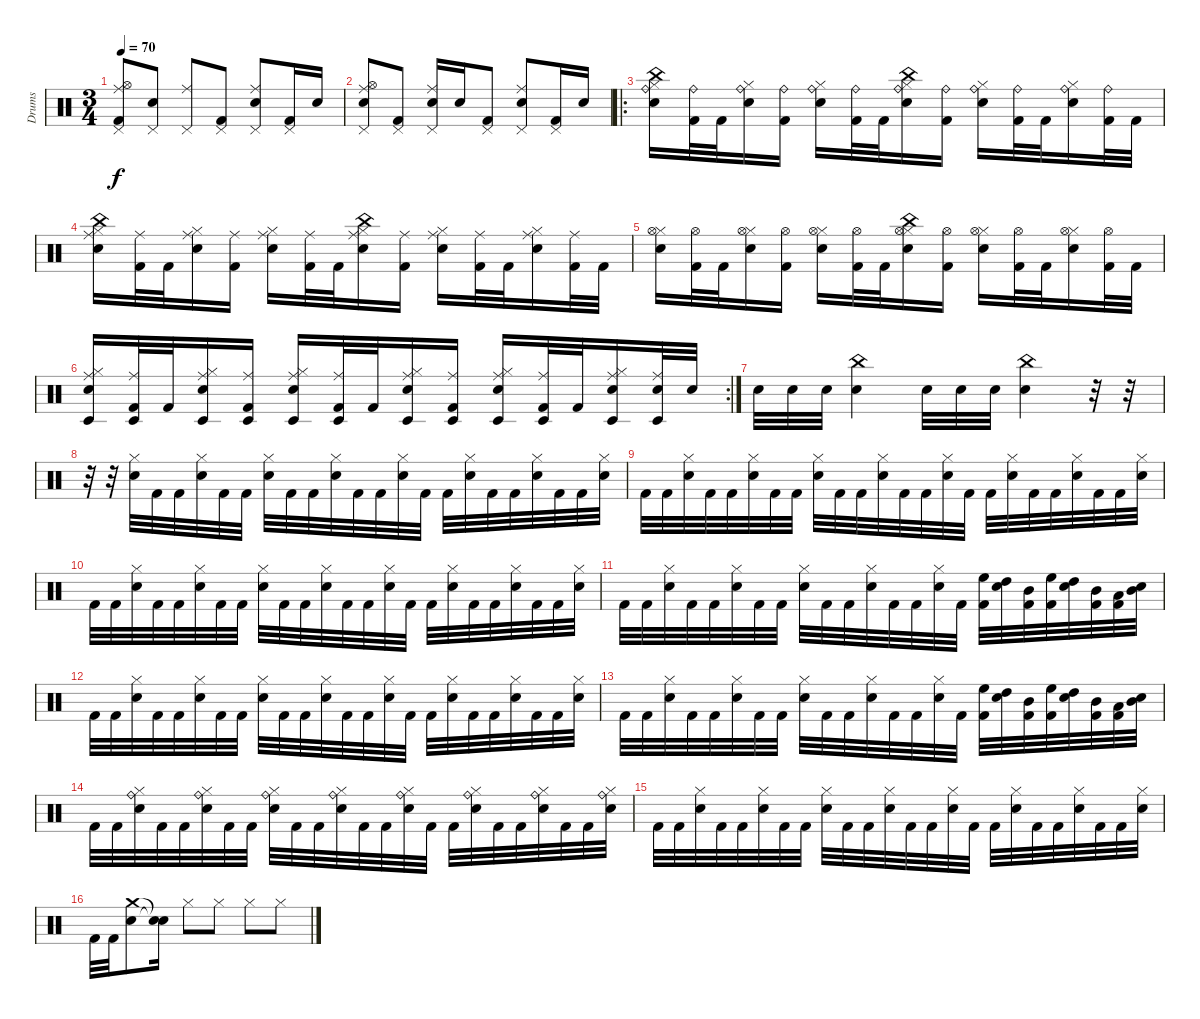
\track ("Drums" "Drums") {instrument percussion}
\staff {score}
\articulation defaults
\ts (3 4)
\tempo 70
\clef neutral
\ks c
("Pedal Hi-Hat (hit)" "Kick (hit) 2" "Hi-Hat (open)" "Ride (middle)").8{dy f} ("Pedal Hi-Hat (hit)" "Electric Snare (hit)").8 ("Pedal Hi-Hat (hit)" "Ride (middle)").8 ("Pedal Hi-Hat (hit)" "Kick (hit) 2").8 ("Pedal Hi-Hat (hit)" "Electric Snare (hit)" "Ride (middle)").8 ("Pedal Hi-Hat (hit)" "Kick (hit) 2").16 "Electric Snare (hit)".16 |
("Pedal Hi-Hat (hit)" "Electric Snare (hit)" "Hi-Hat (open)" "Ride (middle)").8 ("Pedal Hi-Hat (hit)" "Kick (hit) 2").8 ("Pedal Hi-Hat (hit)" "Electric Snare (hit)" "Ride (middle)").16 "Electric Snare (hit)".16 ("Pedal Hi-Hat (hit)" "Kick (hit) 2").8 ("Pedal Hi-Hat (hit)" "Electric Snare (hit)" "Ride (middle)").8 ("Pedal Hi-Hat (hit)" "Kick (hit) 2").16 "Electric Snare (hit)".16 |
\ro
("Hi-Hat (closed)" "Electric Snare (hit)" "Ride (bell)" "China (hit)").16 ("Kick (hit) 2" "Ride (bell)").32 "Kick (hit) 2".32 ("Hi-Hat (closed)" "Electric Snare (hit)" "Ride (bell)").16 ("Kick (hit) 2" "Ride (bell)").16 ("Hi-Hat (closed)" "Electric Snare (hit)" "Ride (bell)").16 ("Kick (hit) 2" "Ride (bell)").32 "Kick (hit) 2".32 ("Hi-Hat (closed)" "Electric Snare (hit)" "Ride (bell)" "China (hit)").16 ("Kick (hit) 2" "Ride (bell)").16 ("Hi-Hat (closed)" "Electric Snare (hit)" "Ride (bell)").16 ("Kick (hit) 2" "Ride (bell)").32 "Kick (hit) 2".32 ("Hi-Hat (closed)" "Electric Snare (hit)" "Ride (bell)").16 ("Kick (hit) 2" "Ride (bell)").32 "Kick (hit) 2".32 |
("Hi-Hat (closed)" "Electric Snare (hit)" "Ride (middle)" "China (hit)").16 ("Kick (hit) 2" "Ride (middle)").32 "Kick (hit) 2".32 ("Hi-Hat (closed)" "Electric Snare (hit)" "Ride (middle)").16 ("Kick (hit) 2" "Ride (middle)").16 ("Hi-Hat (closed)" "Electric Snare (hit)" "Ride (middle)").16 ("Kick (hit) 2" "Ride (middle)").32 "Kick (hit) 2".32 ("Hi-Hat (closed)" "Electric Snare (hit)" "Ride (middle)" "China (hit)").16 ("Kick (hit) 2" "Ride (middle)").16 ("Hi-Hat (closed)" "Electric Snare (hit)" "Ride (middle)").16 ("Kick (hit) 2" "Ride (middle)").32 "Kick (hit) 2".32 ("Hi-Hat (closed)" "Electric Snare (hit)" "Ride (middle)").16 ("Kick (hit) 2" "Ride (middle)").32 "Kick (hit) 2".32 |
("Hi-Hat (closed)" "Electric Snare (hit)" "Hi-Hat (open)").16 ("Kick (hit) 2" "Hi-Hat (open)").32 "Kick (hit) 2".32 ("Hi-Hat (closed)" "Electric Snare (hit)" "Hi-Hat (open)").16 ("Kick (hit) 2" "Hi-Hat (open)").16 ("Hi-Hat (closed)" "Electric Snare (hit)" "Hi-Hat (open)").16 ("Kick (hit) 2" "Hi-Hat (open)").32 "Kick (hit) 2".32 ("Hi-Hat (closed)" "Electric Snare (hit)" "Hi-Hat (open)" "China (hit)").16 ("Kick (hit) 2" "Hi-Hat (open)").16 ("Hi-Hat (closed)" "Electric Snare (hit)" "Hi-Hat (open)").16 ("Kick (hit) 2" "Hi-Hat (open)").32 "Kick (hit) 2".32 ("Hi-Hat (closed)" "Electric Snare (hit)" "Hi-Hat (open)").16 ("Kick (hit) 2" "Hi-Hat (open)").32 "Kick (hit) 2".32 |
\rc 2
("Hi-Hat (closed)" "Electric Snare (hit)" "Ride (middle)" "Timbale low (hit)").16 ("Kick (hit) 2" "Ride (middle)" "Timbale low (hit)").32 "Kick (hit) 2".32 ("Hi-Hat (closed)" "Electric Snare (hit)" "Ride (middle)" "Timbale low (hit)").16 ("Kick (hit) 2" "Ride (middle)" "Timbale low (hit)").16 ("Hi-Hat (closed)" "Electric Snare (hit)" "Ride (middle)" "Timbale low (hit)").16 ("Kick (hit) 2" "Ride (middle)" "Timbale low (hit)").32 "Kick (hit) 2".32 ("Hi-Hat (closed)" "Electric Snare (hit)" "Ride (middle)" "Timbale low (hit)").16 ("Kick (hit) 2" "Ride (middle)" "Timbale low (hit)").16 ("Hi-Hat (closed)" "Electric Snare (hit)" "Ride (middle)" "Timbale low (hit)").16 ("Kick (hit) 2" "Ride (middle)" "Timbale low (hit)").32 "Kick (hit) 2".32 ("Hi-Hat (closed)" "Electric Snare (hit)" "Ride (middle)" "Timbale low (hit)").16 ("Electric Snare (hit)" "Ride (middle)" "Timbale low (hit)").32 "Electric Snare (hit)".32 |
"Electric Snare (hit)".32 "Electric Snare (hit)".32 "Electric Snare (hit)".32 ("China (hit)" "Electric Snare (hit)").4 "Electric Snare (hit)".32 "Electric Snare (hit)".32 "Electric Snare (hit)".32 ("China (hit)" "Electric Snare (hit)").4 r.32 r.32 |
r.32 r.32 ("Hi-Hat (closed)" "Electric Snare (hit)").32 "Kick (hit) 2".32 "Kick (hit) 2".32 ("Hi-Hat (closed)" "Electric Snare (hit)").32 "Kick (hit) 2".32 "Kick (hit) 2".32 ("Hi-Hat (closed)" "Electric Snare (hit)").32 "Kick (hit) 2".32 "Kick (hit) 2".32 ("Hi-Hat (closed)" "Electric Snare (hit)").32 "Kick (hit) 2".32 "Kick (hit) 2".32 ("Hi-Hat (closed)" "Electric Snare (hit)").32 "Kick (hit) 2".32 "Kick (hit) 2".32 ("Hi-Hat (closed)" "Electric Snare (hit)").32 "Kick (hit) 2".32 "Kick (hit) 2".32 ("Hi-Hat (closed)" "Electric Snare (hit)").32 "Kick (hit) 2".32 "Kick (hit) 2".32 ("Hi-Hat (closed)" "Electric Snare (hit)").32 |
"Kick (hit) 2".32 "Kick (hit) 2".32 ("Hi-Hat (closed)" "Electric Snare (hit)").32 "Kick (hit) 2".32 "Kick (hit) 2".32 ("Hi-Hat (closed)" "Electric Snare (hit)").32 "Kick (hit) 2".32 "Kick (hit) 2".32 ("Hi-Hat (closed)" "Electric Snare (hit)").32 "Kick (hit) 2".32 "Kick (hit) 2".32 ("Hi-Hat (closed)" "Electric Snare (hit)").32 "Kick (hit) 2".32 "Kick (hit) 2".32 ("Hi-Hat (closed)" "Electric Snare (hit)").32 "Kick (hit) 2".32 "Kick (hit) 2".32 ("Hi-Hat (closed)" "Electric Snare (hit)").32 "Kick (hit) 2".32 "Kick (hit) 2".32 ("Hi-Hat (closed)" "Electric Snare (hit)").32 "Kick (hit) 2".32 "Kick (hit) 2".32 ("Hi-Hat (closed)" "Electric Snare (hit)").32 |
"Kick (hit) 2".32 "Kick (hit) 2".32 ("Hi-Hat (closed)" "Electric Snare (hit)").32 "Kick (hit) 2".32 "Kick (hit) 2".32 ("Hi-Hat (closed)" "Electric Snare (hit)").32 "Kick (hit) 2".32 "Kick (hit) 2".32 ("Hi-Hat (closed)" "Electric Snare (hit)").32 "Kick (hit) 2".32 "Kick (hit) 2".32 ("Hi-Hat (closed)" "Electric Snare (hit)").32 "Kick (hit) 2".32 "Kick (hit) 2".32 ("Hi-Hat (closed)" "Electric Snare (hit)").32 "Kick (hit) 2".32 "Kick (hit) 2".32 ("Hi-Hat (closed)" "Electric Snare (hit)").32 "Kick (hit) 2".32 "Kick (hit) 2".32 ("Hi-Hat (closed)" "Electric Snare (hit)").32 "Kick (hit) 2".32 "Kick (hit) 2".32 ("Hi-Hat (closed)" "Electric Snare (hit)").32 |
"Kick (hit) 2".32 "Kick (hit) 2".32 ("Hi-Hat (closed)" "Electric Snare (hit)").32 "Kick (hit) 2".32 "Kick (hit) 2".32 ("Hi-Hat (closed)" "Electric Snare (hit)").32 "Kick (hit) 2".32 "Kick (hit) 2".32 ("Hi-Hat (closed)" "Electric Snare (hit)").32 "Kick (hit) 2".32 "Kick (hit) 2".32 ("Hi-Hat (closed)" "Electric Snare (hit)").32 "Kick (hit) 2".32 "Kick (hit) 2".32 ("Hi-Hat (closed)" "Electric Snare (hit)").32 "Kick (hit) 2".32 ("High Floor Tom (hit)" "Kick (hit) 2").32 ("Electric Snare (hit)" "High Tom (hit)").32 ("Mid Tom (hit)" "Kick (hit) 2").32 ("High Floor Tom (hit)" "Kick (hit) 2").32 ("Electric Snare (hit)" "High Tom (hit)").32 ("Mid Tom (hit)" "Kick (hit) 2").32 ("Low Tom (hit)" "Kick (hit) 2").32 ("Electric Snare (hit)" "Mid Tom (hit)").32 |
"Kick (hit) 2".32 "Kick (hit) 2".32 ("Hi-Hat (closed)" "Electric Snare (hit)").32 "Kick (hit) 2".32 "Kick (hit) 2".32 ("Hi-Hat (closed)" "Electric Snare (hit)").32 "Kick (hit) 2".32 "Kick (hit) 2".32 ("Hi-Hat (closed)" "Electric Snare (hit)").32 "Kick (hit) 2".32 "Kick (hit) 2".32 ("Hi-Hat (closed)" "Electric Snare (hit)").32 "Kick (hit) 2".32 "Kick (hit) 2".32 ("Hi-Hat (closed)" "Electric Snare (hit)").32 "Kick (hit) 2".32 "Kick (hit) 2".32 ("Hi-Hat (closed)" "Electric Snare (hit)").32 "Kick (hit) 2".32 "Kick (hit) 2".32 ("Hi-Hat (closed)" "Electric Snare (hit)").32 "Kick (hit) 2".32 "Kick (hit) 2".32 ("Hi-Hat (closed)" "Electric Snare (hit)").32 |
"Kick (hit) 2".32 "Kick (hit) 2".32 ("Hi-Hat (closed)" "Electric Snare (hit)").32 "Kick (hit) 2".32 "Kick (hit) 2".32 ("Hi-Hat (closed)" "Electric Snare (hit)").32 "Kick (hit) 2".32 "Kick (hit) 2".32 ("Hi-Hat (closed)" "Electric Snare (hit)").32 "Kick (hit) 2".32 "Kick (hit) 2".32 ("Hi-Hat (closed)" "Electric Snare (hit)").32 "Kick (hit) 2".32 "Kick (hit) 2".32 ("Hi-Hat (closed)" "Electric Snare (hit)").32 "Kick (hit) 2".32 ("High Floor Tom (hit)" "Kick (hit) 2").32 ("Electric Snare (hit)" "High Tom (hit)").32 ("Mid Tom (hit)" "Kick (hit) 2").32 ("High Floor Tom (hit)" "Kick (hit) 2").32 ("Electric Snare (hit)" "High Tom (hit)").32 ("Mid Tom (hit)" "Kick (hit) 2").32 ("Low Tom (hit)" "Kick (hit) 2").32 ("Electric Snare (hit)" "Mid Tom (hit)").32 |
"Kick (hit) 2".32 "Kick (hit) 2".32 ("Hi-Hat (closed)" "Electric Snare (hit)" "Ride (bell)").32 "Kick (hit) 2".32 "Kick (hit) 2".32 ("Hi-Hat (closed)" "Electric Snare (hit)" "Ride (bell)").32 "Kick (hit) 2".32 "Kick (hit) 2".32 ("Hi-Hat (closed)" "Electric Snare (hit)" "Ride (bell)").32 "Kick (hit) 2".32 "Kick (hit) 2".32 ("Hi-Hat (closed)" "Electric Snare (hit)" "Ride (bell)").32 "Kick (hit) 2".32 "Kick (hit) 2".32 ("Hi-Hat (closed)" "Electric Snare (hit)" "Ride (bell)").32 "Kick (hit) 2".32 "Kick (hit) 2".32 ("Hi-Hat (closed)" "Electric Snare (hit)" "Ride (bell)").32 "Kick (hit) 2".32 "Kick (hit) 2".32 ("Hi-Hat (closed)" "Electric Snare (hit)" "Ride (bell)").32 "Kick (hit) 2".32 "Kick (hit) 2".32 ("Hi-Hat (closed)" "Electric Snare (hit)" "Ride (bell)").32 |
"Kick (hit) 2".32 "Kick (hit) 2".32 ("Hi-Hat (closed)" "Electric Snare (hit)").32 "Kick (hit) 2".32 "Kick (hit) 2".32 ("Hi-Hat (closed)" "Electric Snare (hit)").32 "Kick (hit) 2".32 "Kick (hit) 2".32 ("Hi-Hat (closed)" "Electric Snare (hit)").32 "Kick (hit) 2".32 "Kick (hit) 2".32 ("Hi-Hat (closed)" "Electric Snare (hit)").32 "Kick (hit) 2".32 "Kick (hit) 2".32 ("Hi-Hat (closed)" "Electric Snare (hit)").32 "Kick (hit) 2".32 "Kick (hit) 2".32 ("Hi-Hat (closed)" "Electric Snare (hit)").32 "Kick (hit) 2".32 "Kick (hit) 2".32 ("Hi-Hat (closed)" "Electric Snare (hit)").32 "Kick (hit) 2".32 "Kick (hit) 2".32 ("Hi-Hat (closed)" "Electric Snare (hit)").32 |
"Kick (hit) 2".32 "Kick (hit) 2".32 ("Crash medium (hit)" "Electric Snare (hit)").8 ("Snare (hit)"{t} "Snare (hit)"{t}).16 "Hi-Hat (closed)".8 "Hi-Hat (closed)".8 "Hi-Hat (closed)".8 "Hi-Hat (closed)".8
